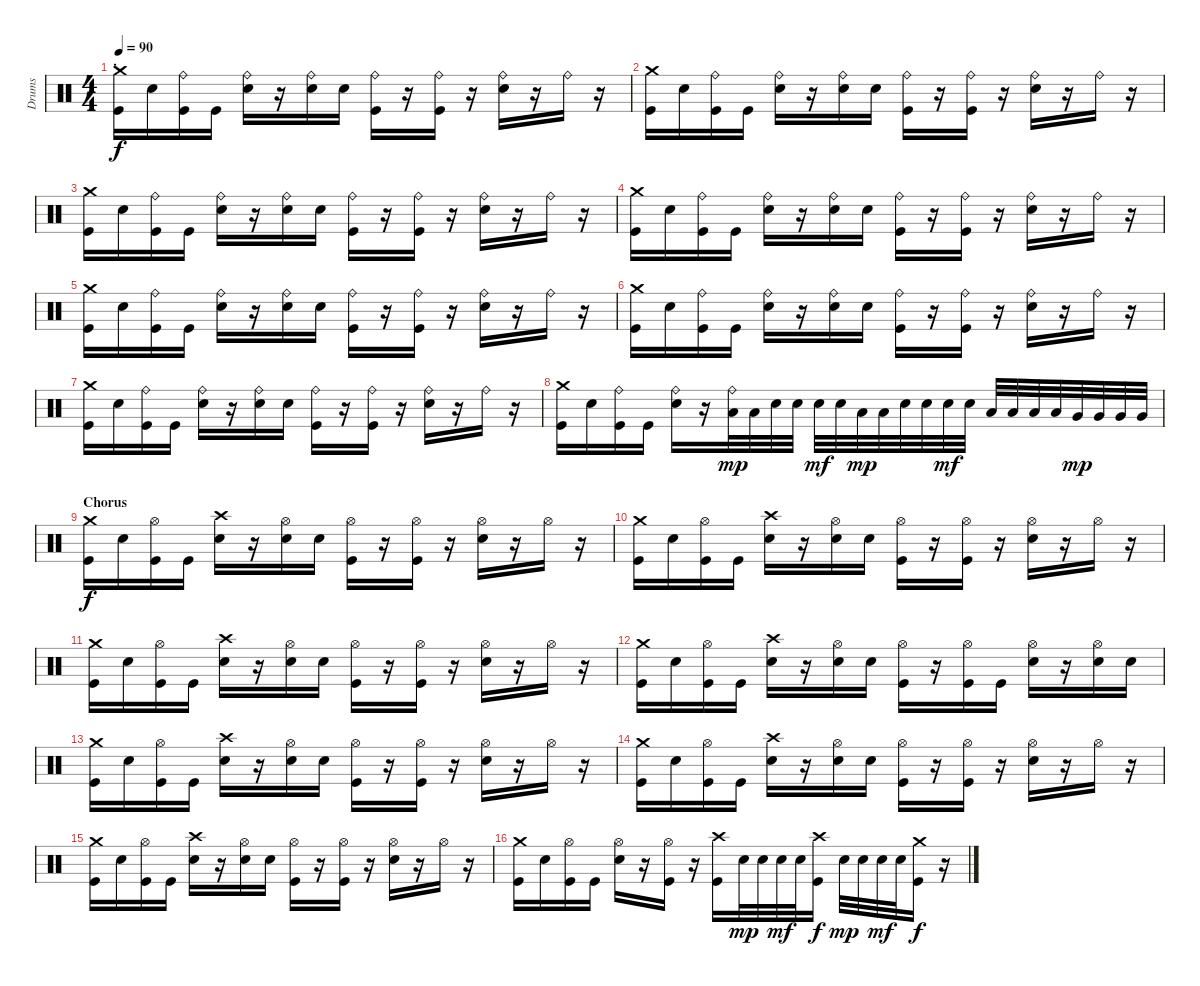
\track ("Drums" "Drums") {instrument percussion}
\staff {score}
\articulation defaults
\ts (4 4)
\section ("" ".")
\tempo 90
\clef neutral
\ks c
("Crash medium (hit)" "Kick (hit)").16{dy f} "Snare (hit) 2".16 ("Ride (bell)" "Kick (hit)").16 "Kick (hit)".16 ("Ride (bell)" "Snare (hit) 2").16 r.16 ("Ride (bell)" "Snare (hit) 2").16 "Snare (hit) 2".16 ("Ride (bell)" "Kick (hit)").16 r.16 ("Ride (bell)" "Kick (hit)").16 r.16 ("Ride (bell)" "Snare (hit) 2").16 r.16 "Ride (bell)".16 r.16 |
("Crash medium (hit)" "Kick (hit)").16 "Snare (hit) 2".16 ("Ride (bell)" "Kick (hit)").16 "Kick (hit)".16 ("Ride (bell)" "Snare (hit) 2").16 r.16 ("Ride (bell)" "Snare (hit) 2").16 "Snare (hit) 2".16 ("Ride (bell)" "Kick (hit)").16 r.16 ("Ride (bell)" "Kick (hit)").16 r.16 ("Ride (bell)" "Snare (hit) 2").16 r.16 "Ride (bell)".16 r.16 |
("Crash medium (hit)" "Kick (hit)").16 "Snare (hit) 2".16 ("Ride (bell)" "Kick (hit)").16 "Kick (hit)".16 ("Ride (bell)" "Snare (hit) 2").16 r.16 ("Ride (bell)" "Snare (hit) 2").16 "Snare (hit) 2".16 ("Ride (bell)" "Kick (hit)").16 r.16 ("Ride (bell)" "Kick (hit)").16 r.16 ("Ride (bell)" "Snare (hit) 2").16 r.16 "Ride (bell)".16 r.16 |
("Crash medium (hit)" "Kick (hit)").16 "Snare (hit) 2".16 ("Ride (bell)" "Kick (hit)").16 "Kick (hit)".16 ("Ride (bell)" "Snare (hit) 2").16 r.16 ("Ride (bell)" "Snare (hit) 2").16 "Snare (hit) 2".16 ("Ride (bell)" "Kick (hit)").16 r.16 ("Ride (bell)" "Kick (hit)").16 r.16 ("Ride (bell)" "Snare (hit) 2").16 r.16 "Ride (bell)".16 r.16 |
("Crash medium (hit)" "Kick (hit)").16 "Snare (hit) 2".16 ("Ride (bell)" "Kick (hit)").16 "Kick (hit)".16 ("Ride (bell)" "Snare (hit) 2").16 r.16 ("Ride (bell)" "Snare (hit) 2").16 "Snare (hit) 2".16 ("Ride (bell)" "Kick (hit)").16 r.16 ("Ride (bell)" "Kick (hit)").16 r.16 ("Ride (bell)" "Snare (hit) 2").16 r.16 "Ride (bell)".16 r.16 |
("Crash medium (hit)" "Kick (hit)").16 "Snare (hit) 2".16 ("Ride (bell)" "Kick (hit)").16 "Kick (hit)".16 ("Ride (bell)" "Snare (hit) 2").16 r.16 ("Ride (bell)" "Snare (hit) 2").16 "Snare (hit) 2".16 ("Ride (bell)" "Kick (hit)").16 r.16 ("Ride (bell)" "Kick (hit)").16 r.16 ("Ride (bell)" "Snare (hit) 2").16 r.16 "Ride (bell)".16 r.16 |
("Crash medium (hit)" "Kick (hit)").16 "Snare (hit) 2".16 ("Ride (bell)" "Kick (hit)").16 "Kick (hit)".16 ("Ride (bell)" "Snare (hit) 2").16 r.16 ("Ride (bell)" "Snare (hit) 2").16 "Snare (hit) 2".16 ("Ride (bell)" "Kick (hit)").16 r.16 ("Ride (bell)" "Kick (hit)").16 r.16 ("Ride (bell)" "Snare (hit) 2").16 r.16 "Ride (bell)".16 r.16 |
("Crash medium (hit)" "Kick (hit)").16 "Snare (hit) 2".16 ("Ride (bell)" "Kick (hit)").16 "Kick (hit)".16 ("Ride (bell)" "Snare (hit) 2").16 r.16 ("Ride (bell)" "Low Tom (hit)").32{dy mp} "Low Tom (hit)".32 "Snare (hit) 2".32 "Snare (hit) 2".32 "Snare (hit) 2".32{dy mf} "Snare (hit) 2".32 "Low Tom (hit)".32{dy mp} "Low Tom (hit)".32 "Snare (hit) 2".32 "Snare (hit) 2".32 "Snare (hit) 2".32{dy mf} "Snare (hit) 2".32 "Low Tom (hit)".32 "Low Tom (hit)".32 "Low Tom (hit)".32 "Low Tom (hit)".32 "Very Low Tom (hit)".32{dy mp} "Very Low Tom (hit)".32 "Very Low Tom (hit)".32 "Very Low Tom (hit)".32 |
\section ("" "Chorus")
("Crash medium (hit)" "Kick (hit)").16{dy f} "Snare (hit) 2".16 ("Hi-Hat (open)" "Kick (hit)").16 "Kick (hit)".16 ("Crash high (hit)" "Snare (hit) 2").16 r.16 ("Hi-Hat (open)" "Snare (hit) 2").16 "Snare (hit) 2".16 ("Hi-Hat (open)" "Kick (hit)").16 r.16 ("Hi-Hat (open)" "Kick (hit)").16 r.16 ("Hi-Hat (open)" "Snare (hit) 2").16 r.16 "Hi-Hat (open)".16 r.16 |
("Crash medium (hit)" "Kick (hit)").16 "Snare (hit) 2".16 ("Hi-Hat (open)" "Kick (hit)").16 "Kick (hit)".16 ("Crash high (hit)" "Snare (hit) 2").16 r.16 ("Hi-Hat (open)" "Snare (hit) 2").16 "Snare (hit) 2".16 ("Hi-Hat (open)" "Kick (hit)").16 r.16 ("Hi-Hat (open)" "Kick (hit)").16 r.16 ("Hi-Hat (open)" "Snare (hit) 2").16 r.16 "Hi-Hat (open)".16 r.16 |
("Crash medium (hit)" "Kick (hit)").16 "Snare (hit) 2".16 ("Hi-Hat (open)" "Kick (hit)").16 "Kick (hit)".16 ("Crash high (hit)" "Snare (hit) 2").16 r.16 ("Hi-Hat (open)" "Snare (hit) 2").16 "Snare (hit) 2".16 ("Hi-Hat (open)" "Kick (hit)").16 r.16 ("Hi-Hat (open)" "Kick (hit)").16 r.16 ("Hi-Hat (open)" "Snare (hit) 2").16 r.16 "Hi-Hat (open)".16 r.16 |
("Crash medium (hit)" "Kick (hit)").16 "Snare (hit) 2".16 ("Hi-Hat (open)" "Kick (hit)").16 "Kick (hit)".16 ("Crash high (hit)" "Snare (hit) 2").16 r.16 ("Hi-Hat (open)" "Snare (hit) 2").16 "Snare (hit) 2".16 ("Hi-Hat (open)" "Kick (hit)").16 r.16 ("Hi-Hat (open)" "Kick (hit)").16 "Kick (hit)".16 ("Hi-Hat (open)" "Snare (hit) 2").16 r.16 ("Hi-Hat (open)" "Snare (hit) 2").16 "Snare (hit) 2".16 |
("Crash medium (hit)" "Kick (hit)").16 "Snare (hit) 2".16 ("Hi-Hat (open)" "Kick (hit)").16 "Kick (hit)".16 ("Crash high (hit)" "Snare (hit) 2").16 r.16 ("Hi-Hat (open)" "Snare (hit) 2").16 "Snare (hit) 2".16 ("Hi-Hat (open)" "Kick (hit)").16 r.16 ("Hi-Hat (open)" "Kick (hit)").16 r.16 ("Hi-Hat (open)" "Snare (hit) 2").16 r.16 "Hi-Hat (open)".16 r.16 |
("Crash medium (hit)" "Kick (hit)").16 "Snare (hit) 2".16 ("Hi-Hat (open)" "Kick (hit)").16 "Kick (hit)".16 ("Crash high (hit)" "Snare (hit) 2").16 r.16 ("Hi-Hat (open)" "Snare (hit) 2").16 "Snare (hit) 2".16 ("Hi-Hat (open)" "Kick (hit)").16 r.16 ("Hi-Hat (open)" "Kick (hit)").16 r.16 ("Hi-Hat (open)" "Snare (hit) 2").16 r.16 "Hi-Hat (open)".16 r.16 |
("Crash medium (hit)" "Kick (hit)").16 "Snare (hit) 2".16 ("Hi-Hat (open)" "Kick (hit)").16 "Kick (hit)".16 ("Crash high (hit)" "Snare (hit) 2").16 r.16 ("Hi-Hat (open)" "Snare (hit) 2").16 "Snare (hit) 2".16 ("Hi-Hat (open)" "Kick (hit)").16 r.16 ("Hi-Hat (open)" "Kick (hit)").16 r.16 ("Hi-Hat (open)" "Snare (hit) 2").16 r.16 "Hi-Hat (open)".16 r.16 |
("Crash medium (hit)" "Kick (hit)").16 "Snare (hit) 2".16 ("Hi-Hat (open)" "Kick (hit)").16 "Kick (hit)".16 ("Hi-Hat (open)" "Snare (hit) 2").16 r.16 ("Hi-Hat (open)" "Kick (hit)").16 r.16 ("Crash high (hit)" "Kick (hit)").16 "Snare (hit) 2".32{dy mp} "Snare (hit) 2".32 "Snare (hit) 2".32{dy mf} "Snare (hit) 2".32 ("Crash high (hit)" "Kick (hit)").16{dy f} "Snare (hit) 2".32{dy mp} "Snare (hit) 2".32 "Snare (hit) 2".32{dy mf} "Snare (hit) 2".32 ("Crash medium (hit)" "Kick (hit)").16{dy f} r.16
